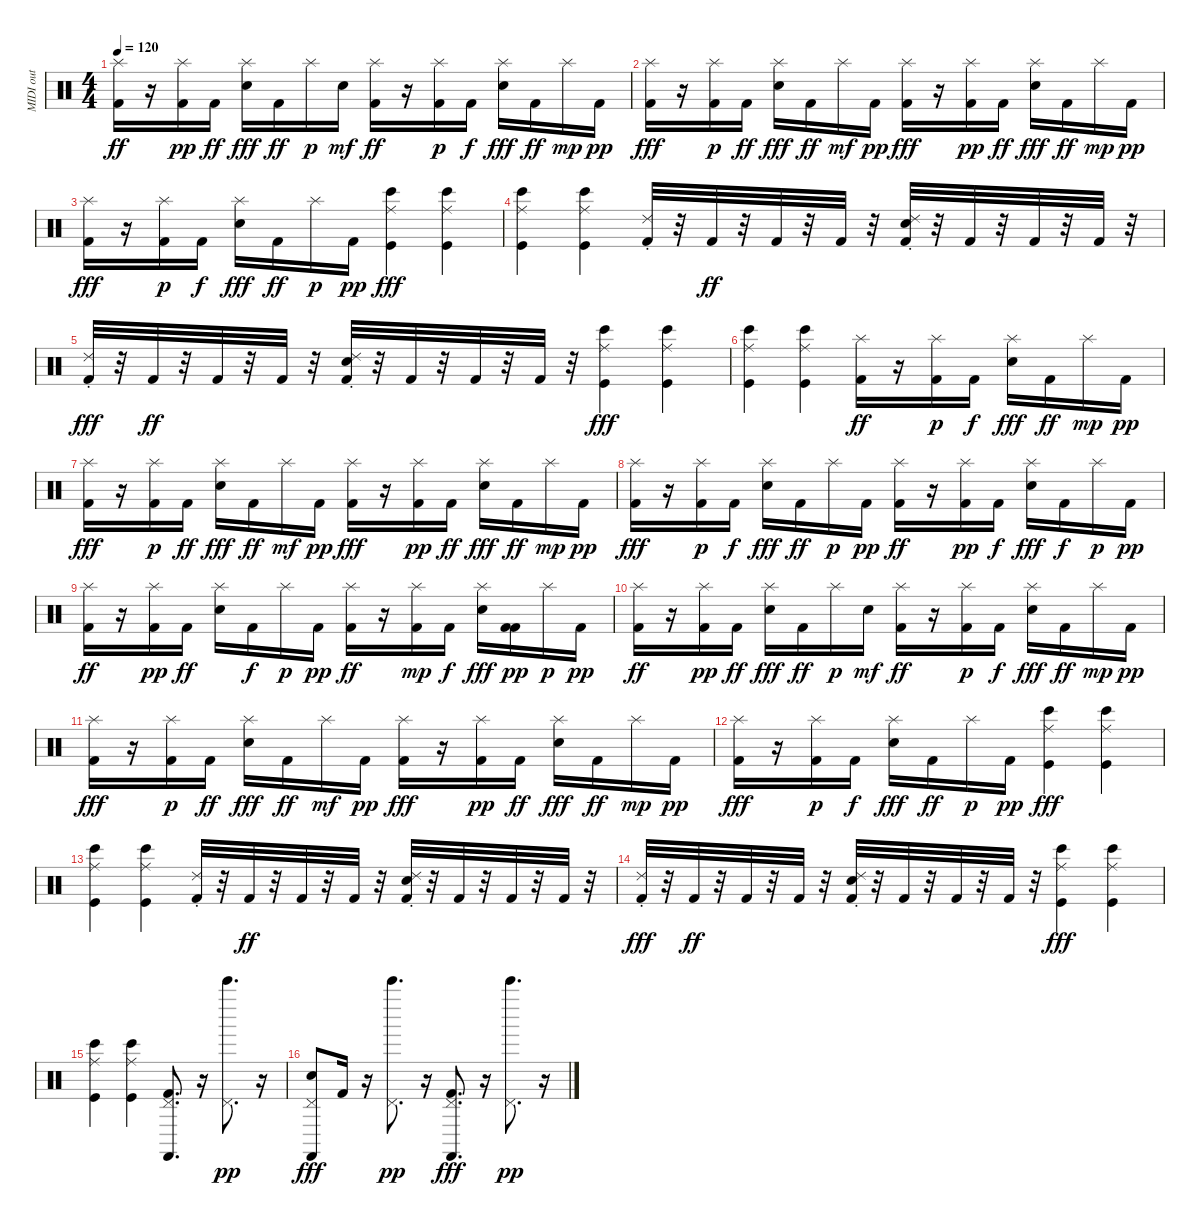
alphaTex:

\track ("MIDI out" "MIDI out") {instrument percussion}
\staff {score}
\articulation defaults
\ts (4 4)
\tempo 120
\clef neutral
\ks c
("Kick (hit) 2" "Splash (hit)").16{dy ff} r.16 ("Splash (hit)" "Kick (hit) 2").16{dy pp} "Kick (hit) 2".16{dy ff} ("Splash (hit)" "Snare (hit) 2").16{dy fff} "Kick (hit) 2".16{dy ff} "Splash (hit)".16{dy p} "Snare (hit) 2".16{dy mf} ("Splash (hit)" "Kick (hit) 2").16{dy ff} r.16 ("Kick (hit) 2" "Splash (hit)").16{dy p} "Kick (hit) 2".16{dy f} ("Splash (hit)" "Snare (hit) 2").16{dy fff} "Kick (hit) 2".16{dy ff} "Splash (hit)".16{dy mp} "Kick (hit) 2".16{dy pp} |
("Kick (hit) 2" "Splash (hit)").16{dy fff} r.16 ("Splash (hit)" "Kick (hit) 2").16{dy p} "Kick (hit) 2".16{dy ff} ("Splash (hit)" "Snare (hit) 2").16{dy fff} "Kick (hit) 2".16{dy ff} "Splash (hit)".16{dy mf} "Kick (hit) 2".16{dy pp} ("Kick (hit) 2" "Splash (hit)").16{dy fff} r.16 ("Splash (hit)" "Kick (hit) 2").16{dy pp} "Kick (hit) 2".16{dy ff} ("Snare (hit) 2" "Splash (hit)").16{dy fff} "Kick (hit) 2".16{dy ff} "Splash (hit)".16{dy mp} "Kick (hit) 2".16{dy pp} |
("Kick (hit) 2" "Splash (hit)").16{dy fff} r.16 ("Splash (hit)" "Kick (hit) 2").16{dy p} "Kick (hit) 2".16{dy f} ("Splash (hit)" "Snare (hit) 2").16{dy fff} "Kick (hit) 2".16{dy ff} "Splash (hit)".16{dy p} "Kick (hit) 2".16{dy pp} ("Ride (middle)" "Bongo High (hit)" "Kick (hit)").4{dy fff} ("Kick (hit)" "Ride (middle)" "Bongo High (hit)").4 |
("Bongo High (hit)" "Ride (middle)" "Kick (hit)").4 ("Kick (hit)" "Ride (middle)" "Bongo High (hit)").4 ("Ride (choke) 2" "Kick (hit) 2").32 r.32 "Kick (hit) 2".32{dy ff} r.32 "Kick (hit) 2".32 r.32 "Kick (hit) 2".32 r.32 ("Ride (choke) 2" "Snare (hit) 2" "Kick (hit) 2").32 r.32 "Kick (hit) 2".32 r.32 "Kick (hit) 2".32 r.32 "Kick (hit) 2".32 r.32 |
("Ride (choke) 2" "Kick (hit) 2").32{dy fff} r.32 "Kick (hit) 2".32{dy ff} r.32 "Kick (hit) 2".32 r.32 "Kick (hit) 2".32 r.32 ("Ride (choke) 2" "Snare (hit) 2" "Kick (hit) 2").32 r.32 "Kick (hit) 2".32 r.32 "Kick (hit) 2".32 r.32 "Kick (hit) 2".32 r.32 ("Ride (middle)" "Bongo High (hit)" "Kick (hit)").4{dy fff} ("Kick (hit)" "Ride (middle)" "Bongo High (hit)").4 |
("Bongo High (hit)" "Ride (middle)" "Kick (hit)").4 ("Kick (hit)" "Ride (middle)" "Bongo High (hit)").4 ("Splash (hit)" "Kick (hit) 2").16{dy ff} r.16 ("Kick (hit) 2" "Splash (hit)").16{dy p} "Kick (hit) 2".16{dy f} ("Splash (hit)" "Snare (hit) 2").16{dy fff} "Kick (hit) 2".16{dy ff} "Splash (hit)".16{dy mp} "Kick (hit) 2".16{dy pp} |
("Kick (hit) 2" "Splash (hit)").16{dy fff} r.16 ("Splash (hit)" "Kick (hit) 2").16{dy p} "Kick (hit) 2".16{dy ff} ("Splash (hit)" "Snare (hit) 2").16{dy fff} "Kick (hit) 2".16{dy ff} "Splash (hit)".16{dy mf} "Kick (hit) 2".16{dy pp} ("Kick (hit) 2" "Splash (hit)").16{dy fff} r.16 ("Splash (hit)" "Kick (hit) 2").16{dy pp} "Kick (hit) 2".16{dy ff} ("Snare (hit) 2" "Splash (hit)").16{dy fff} "Kick (hit) 2".16{dy ff} "Splash (hit)".16{dy mp} "Kick (hit) 2".16{dy pp} |
("Kick (hit) 2" "Splash (hit)").16{dy fff} r.16 ("Splash (hit)" "Kick (hit) 2").16{dy p} "Kick (hit) 2".16{dy f} ("Splash (hit)" "Snare (hit) 2").16{dy fff} "Kick (hit) 2".16{dy ff} "Splash (hit)".16{dy p} "Kick (hit) 2".16{dy pp} ("Splash (hit)" "Kick (hit) 2").16{dy ff} r.16 ("Splash (hit)" "Kick (hit) 2").16{dy pp} "Kick (hit) 2".16{dy f} ("Splash (hit)" "Snare (hit) 2").16{dy fff} "Kick (hit) 2".16{dy f} "Splash (hit)".16{dy p} "Kick (hit) 2".16{dy pp} |
("Splash (hit)" "Kick (hit) 2").16{dy ff} r.16 ("Splash (hit)" "Kick (hit) 2").16{dy pp} "Kick (hit) 2".16{dy ff} ("Snare (hit) 2" "Splash (hit)").16 "Kick (hit) 2".16{dy f} "Splash (hit)".16{dy p} "Kick (hit) 2".16{dy pp} ("Splash (hit)" "Kick (hit) 2").16{dy ff} r.16 ("Kick (hit) 2" "Splash (hit)").16{dy mp} "Kick (hit) 2".16{dy f} ("Snare (hit) 2" "Splash (hit)").16{dy fff} ("Kick (hit) 2" "Kick (hit) 2").16{dy pp} "Splash (hit)".16{dy p} "Kick (hit) 2".16{dy pp} |
("Kick (hit) 2" "Splash (hit)").16{dy ff} r.16 ("Splash (hit)" "Kick (hit) 2").16{dy pp} "Kick (hit) 2".16{dy ff} ("Splash (hit)" "Snare (hit) 2").16{dy fff} "Kick (hit) 2".16{dy ff} "Splash (hit)".16{dy p} "Snare (hit) 2".16{dy mf} ("Splash (hit)" "Kick (hit) 2").16{dy ff} r.16 ("Kick (hit) 2" "Splash (hit)").16{dy p} "Kick (hit) 2".16{dy f} ("Splash (hit)" "Snare (hit) 2").16{dy fff} "Kick (hit) 2".16{dy ff} "Splash (hit)".16{dy mp} "Kick (hit) 2".16{dy pp} |
("Kick (hit) 2" "Splash (hit)").16{dy fff} r.16 ("Splash (hit)" "Kick (hit) 2").16{dy p} "Kick (hit) 2".16{dy ff} ("Splash (hit)" "Snare (hit) 2").16{dy fff} "Kick (hit) 2".16{dy ff} "Splash (hit)".16{dy mf} "Kick (hit) 2".16{dy pp} ("Kick (hit) 2" "Splash (hit)").16{dy fff} r.16 ("Splash (hit)" "Kick (hit) 2").16{dy pp} "Kick (hit) 2".16{dy ff} ("Snare (hit) 2" "Splash (hit)").16{dy fff} "Kick (hit) 2".16{dy ff} "Splash (hit)".16{dy mp} "Kick (hit) 2".16{dy pp} |
("Kick (hit) 2" "Splash (hit)").16{dy fff} r.16 ("Splash (hit)" "Kick (hit) 2").16{dy p} "Kick (hit) 2".16{dy f} ("Splash (hit)" "Snare (hit) 2").16{dy fff} "Kick (hit) 2".16{dy ff} "Splash (hit)".16{dy p} "Kick (hit) 2".16{dy pp} ("Ride (middle)" "Bongo High (hit)" "Kick (hit)").4{dy fff} ("Kick (hit)" "Ride (middle)" "Bongo High (hit)").4 |
("Bongo High (hit)" "Ride (middle)" "Kick (hit)").4 ("Kick (hit)" "Ride (middle)" "Bongo High (hit)").4 ("Ride (choke) 2" "Kick (hit) 2").32 r.32 "Kick (hit) 2".32{dy ff} r.32 "Kick (hit) 2".32 r.32 "Kick (hit) 2".32 r.32 ("Ride (choke) 2" "Snare (hit) 2" "Kick (hit) 2").32 r.32 "Kick (hit) 2".32 r.32 "Kick (hit) 2".32 r.32 "Kick (hit) 2".32 r.32 |
("Ride (choke) 2" "Kick (hit) 2").32{dy fff} r.32 "Kick (hit) 2".32{dy ff} r.32 "Kick (hit) 2".32 r.32 "Kick (hit) 2".32 r.32 ("Ride (choke) 2" "Snare (hit) 2" "Kick (hit) 2").32 r.32 "Kick (hit) 2".32 r.32 "Kick (hit) 2".32 r.32 "Kick (hit) 2".32 r.32 ("Ride (middle)" "Bongo High (hit)" "Kick (hit)").4{dy fff} ("Kick (hit)" "Ride (middle)" "Bongo High (hit)").4 |
("Bongo High (hit)" "Ride (middle)" "Kick (hit)").4 ("Kick (hit)" "Ride (middle)" "Bongo High (hit)").4 ("Pedal Hi-Hat (hit)" "Kick (hit) 2" "Castanets (hit)").8{d} r.16 ("Pedal Hi-Hat (hit)" "Bell Tree (hit)").8{d dy pp} r.16 |
("Snare (hit) 2" "Pedal Hi-Hat (hit)" "Castanets (hit)").8{dy fff} "Kick (hit) 2".16 r.16 ("Pedal Hi-Hat (hit)" "Bell Tree (hit)").8{d dy pp} r.16 ("Pedal Hi-Hat (hit)" "Kick (hit) 2" "Castanets (hit)").8{d dy fff} r.16 ("Pedal Hi-Hat (hit)" "Bell Tree (hit)").8{d dy pp} r.16
